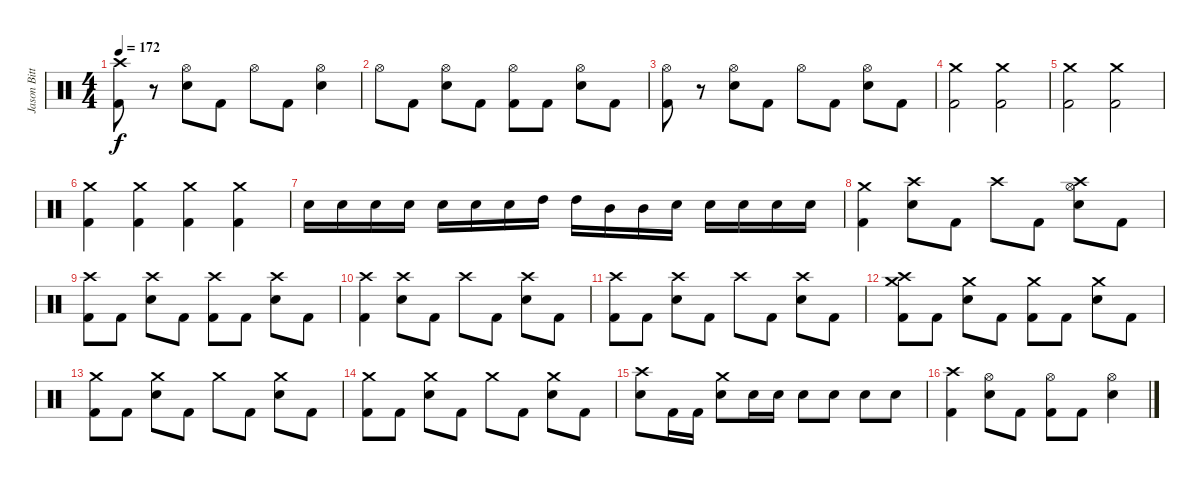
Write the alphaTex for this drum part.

\track ("Jason Bittner" "Jason Bitt") {instrument percussion}
\staff {score}
\articulation defaults
\ts (4 4)
\tempo 172
\clef neutral
\ks c
("Crash high (hit)" "Kick (hit) 2").8{dy f} r.8 ("Hi-Hat (open)" "Electric Snare (hit)").8 "Kick (hit) 2".8 "Hi-Hat (open)".8 "Kick (hit) 2".8 ("Hi-Hat (open)" "Electric Snare (hit)").4 |
"Hi-Hat (open)".8 "Kick (hit) 2".8 ("Hi-Hat (open)" "Electric Snare (hit)").8 "Kick (hit) 2".8 ("Hi-Hat (open)" "Kick (hit) 2").8 "Kick (hit) 2".8 ("Hi-Hat (open)" "Electric Snare (hit)").8 "Kick (hit) 2".8 |
("Hi-Hat (open)" "Kick (hit) 2").8 r.8 ("Hi-Hat (open)" "Electric Snare (hit)").8 "Kick (hit) 2".8 "Hi-Hat (open)".8 "Kick (hit) 2".8 ("Hi-Hat (open)" "Electric Snare (hit)").8 "Kick (hit) 2".8 |
("Crash medium (hit)" "Kick (hit) 2").2 ("Crash medium (hit)" "Kick (hit) 2").2 |
("Crash medium (hit)" "Kick (hit) 2").2 ("Crash medium (hit)" "Kick (hit) 2").2 |
("Crash medium (hit)" "Kick (hit) 2").4 ("Crash medium (hit)" "Kick (hit) 2").4 ("Crash medium (hit)" "Kick (hit) 2").4 ("Crash medium (hit)" "Kick (hit) 2").4 |
"Electric Snare (hit)".16 "Electric Snare (hit)".16 "Electric Snare (hit)".16 "Electric Snare (hit)".16 "Electric Snare (hit)".16 "Electric Snare (hit)".16 "Electric Snare (hit)".16 "High Tom (hit)".16 "High Tom (hit)".16 "Mid Tom (hit)".16 "Mid Tom (hit)".16 "Electric Snare (hit)".16 "Electric Snare (hit)".16 "Electric Snare (hit)".16 "Electric Snare (hit)".16 "Electric Snare (hit)".16 |
("Crash medium (hit)" "Kick (hit) 2").4 ("Crash high (hit)" "Electric Snare (hit)").8 "Kick (hit) 2".8 "Crash high (hit)".8 "Kick (hit) 2".8 ("Crash high (hit)" "Hi-Hat (open)" "Electric Snare (hit)").8 "Kick (hit) 2".8 |
("Crash high (hit)" "Kick (hit) 2").8 "Kick (hit) 2".8 ("Crash high (hit)" "Electric Snare (hit)").8 "Kick (hit) 2".8 ("Crash high (hit)" "Kick (hit) 2").8 "Kick (hit) 2".8 ("Crash high (hit)" "Electric Snare (hit)").8 "Kick (hit) 2".8 |
("Crash high (hit)" "Kick (hit) 2").4 ("Crash high (hit)" "Electric Snare (hit)").8 "Kick (hit) 2".8 "Crash high (hit)".8 "Kick (hit) 2".8 ("Crash high (hit)" "Electric Snare (hit)").8 "Kick (hit) 2".8 |
("Crash high (hit)" "Kick (hit) 2").8 "Kick (hit) 2".8 ("Crash high (hit)" "Electric Snare (hit)").8 "Kick (hit) 2".8 "Crash high (hit)".8 "Kick (hit) 2".8 ("Crash high (hit)" "Electric Snare (hit)").8 "Kick (hit) 2".8 |
("Crash medium (hit)" "Crash high (hit)" "Kick (hit) 2").8 "Kick (hit) 2".8 ("Crash medium (hit)" "Electric Snare (hit)").8 "Kick (hit) 2".8 ("Crash medium (hit)" "Kick (hit) 2").8 "Kick (hit) 2".8 ("Crash medium (hit)" "Electric Snare (hit)").8 "Kick (hit) 2".8 |
("Crash medium (hit)" "Kick (hit) 2").8 "Kick (hit) 2".8 ("Crash medium (hit)" "Electric Snare (hit)").8 "Kick (hit) 2".8 "Crash medium (hit)".8 "Kick (hit) 2".8 ("Crash medium (hit)" "Electric Snare (hit)").8 "Kick (hit) 2".8 |
("Crash medium (hit)" "Kick (hit) 2").8 "Kick (hit) 2".8 ("Crash medium (hit)" "Electric Snare (hit)").8 "Kick (hit) 2".8 "Crash medium (hit)".8 "Kick (hit) 2".8 ("Crash medium (hit)" "Electric Snare (hit)").8 "Kick (hit) 2".8 |
("Crash high (hit)" "Electric Snare (hit)").8 "Kick (hit) 2".16 "Kick (hit) 2".16 ("Crash medium (hit)" "Electric Snare (hit)").8 "Electric Snare (hit)".16 "Electric Snare (hit)".16 "Electric Snare (hit)".8 "Electric Snare (hit)".8 "Electric Snare (hit)".8 "Electric Snare (hit)".8 |
("Crash high (hit)" "Kick (hit) 2").4 ("Hi-Hat (open)" "Electric Snare (hit)").8 "Kick (hit) 2".8 ("Hi-Hat (open)" "Kick (hit) 2").8 "Kick (hit) 2".8 ("Hi-Hat (open)" "Electric Snare (hit)").4
